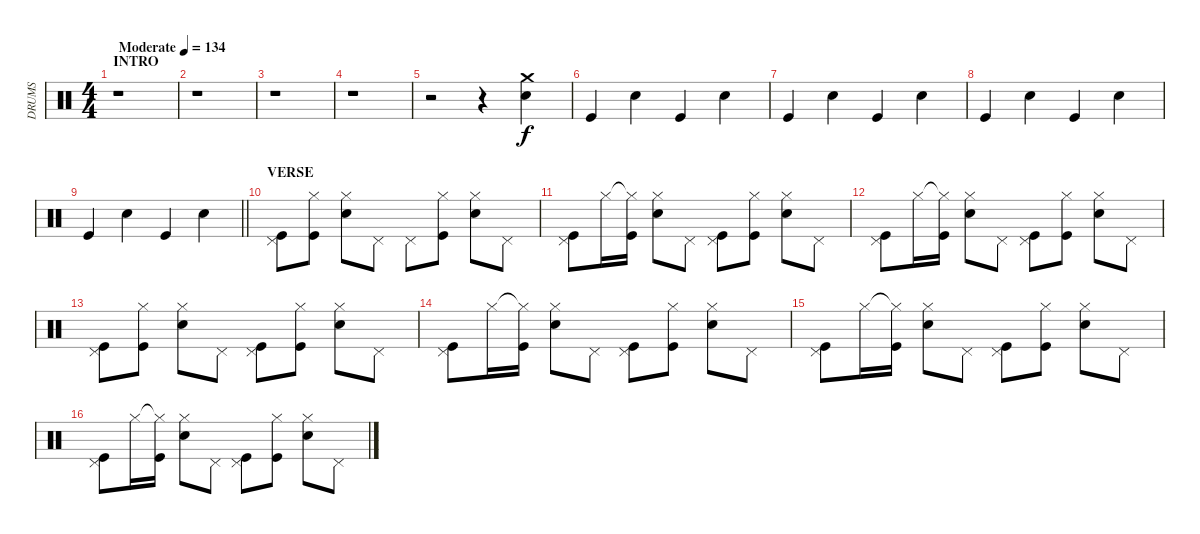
\track ("DRUMS" "DRUMS") {instrument percussion}
\staff {score}
\articulation defaults
\ts (4 4)
\section ("" "INTRO")
\tempo (134 "Moderate")
\clef neutral
\ks c
r.1{dy f} |
r.1 |
r.1 |
r.1 |
r.2 r.4 ("Crash medium (hit)" "Snare (hit) 2").4 |
"Kick (hit)".4 "Snare (hit) 2".4 "Kick (hit)".4 "Snare (hit) 2".4 |
"Kick (hit)".4 "Snare (hit) 2".4 "Kick (hit)".4 "Snare (hit) 2".4 |
"Kick (hit)".4 "Snare (hit) 2".4 "Kick (hit)".4 "Snare (hit) 2".4 |
\barLineRight lightlight "Kick (hit)".4 "Snare (hit) 2".4 "Kick (hit)".4 "Snare (hit) 2".4
|
\section ("" "VERSE")
("Pedal Hi-Hat (hit)" "Kick (hit)").8 ("Hi-Hat (closed)" "Kick (hit)").8 ("Hi-Hat (closed)" "Snare (hit) 2").8 "Pedal Hi-Hat (hit)".8 "Pedal Hi-Hat (hit)".8 ("Hi-Hat (closed)" "Kick (hit)").8 ("Hi-Hat (closed)" "Snare (hit) 2").8 "Pedal Hi-Hat (hit)".8 |
("Pedal Hi-Hat (hit)" "Kick (hit)").8 "Hi-Hat (closed)".16 ("Hi-Hat (closed)"{t} "Kick (hit)").16 ("Hi-Hat (closed)" "Snare (hit) 2").8 "Pedal Hi-Hat (hit)".8 ("Pedal Hi-Hat (hit)" "Kick (hit)").8 ("Hi-Hat (closed)" "Kick (hit)").8 ("Hi-Hat (closed)" "Snare (hit) 2").8 "Pedal Hi-Hat (hit)".8 |
("Pedal Hi-Hat (hit)" "Kick (hit)").8 "Hi-Hat (closed)".16 ("Hi-Hat (closed)"{t} "Kick (hit)").16 ("Hi-Hat (closed)" "Snare (hit) 2").8 "Pedal Hi-Hat (hit)".8 ("Pedal Hi-Hat (hit)" "Kick (hit)").8 ("Hi-Hat (closed)" "Kick (hit)").8 ("Hi-Hat (closed)" "Snare (hit) 2").8 "Pedal Hi-Hat (hit)".8 |
("Pedal Hi-Hat (hit)" "Kick (hit)").8 ("Hi-Hat (closed)" "Kick (hit)").8 ("Hi-Hat (closed)" "Snare (hit) 2").8 "Pedal Hi-Hat (hit)".8 ("Pedal Hi-Hat (hit)" "Kick (hit)").8 ("Hi-Hat (closed)" "Kick (hit)").8 ("Hi-Hat (closed)" "Snare (hit) 2").8 "Pedal Hi-Hat (hit)".8 |
("Pedal Hi-Hat (hit)" "Kick (hit)").8 "Hi-Hat (closed)".16 ("Hi-Hat (closed)"{t} "Kick (hit)").16 ("Hi-Hat (closed)" "Snare (hit) 2").8 "Pedal Hi-Hat (hit)".8 ("Pedal Hi-Hat (hit)" "Kick (hit)").8 ("Hi-Hat (closed)" "Kick (hit)").8 ("Hi-Hat (closed)" "Snare (hit) 2").8 "Pedal Hi-Hat (hit)".8 |
("Pedal Hi-Hat (hit)" "Kick (hit)").8 "Hi-Hat (closed)".16 ("Hi-Hat (closed)"{t} "Kick (hit)").16 ("Hi-Hat (closed)" "Snare (hit) 2").8 "Pedal Hi-Hat (hit)".8 ("Pedal Hi-Hat (hit)" "Kick (hit)").8 ("Hi-Hat (closed)" "Kick (hit)").8 ("Hi-Hat (closed)" "Snare (hit) 2").8 "Pedal Hi-Hat (hit)".8 |
("Pedal Hi-Hat (hit)" "Kick (hit)").8 "Hi-Hat (closed)".16 ("Hi-Hat (closed)"{t} "Kick (hit)").16 ("Hi-Hat (closed)" "Snare (hit) 2").8 "Pedal Hi-Hat (hit)".8 ("Pedal Hi-Hat (hit)" "Kick (hit)").8 ("Hi-Hat (closed)" "Kick (hit)").8 ("Hi-Hat (closed)" "Snare (hit) 2").8 "Pedal Hi-Hat (hit)".8
